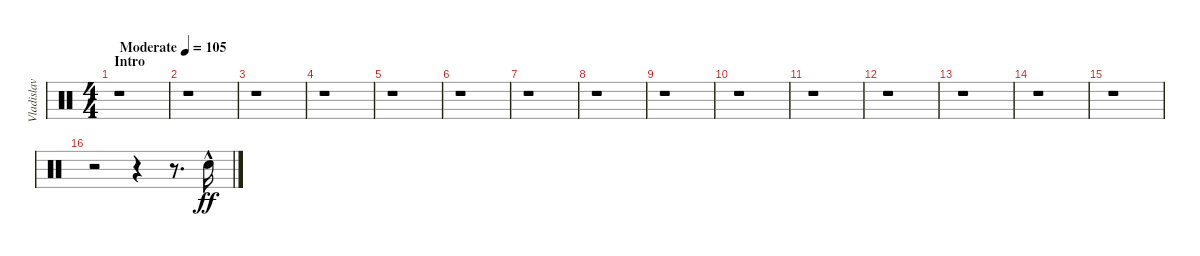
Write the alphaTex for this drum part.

\track ("Vladislav Ulasevish" "Vladislav ") {instrument percussion}
\staff {score}
\articulation defaults
\ts (4 4)
\section ("" "Intro")
\tempo (105 "Moderate")
\clef neutral
\ks c
r.1{dy ff} |
r.1 |
r.1 |
r.1 |
r.1 |
r.1 |
r.1 |
r.1 |
r.1 |
r.1 |
r.1 |
r.1 |
r.1 |
r.1 |
r.1 |
r.2 r.4 r.8{d} "Snare (hit) 2"{hac}.16
